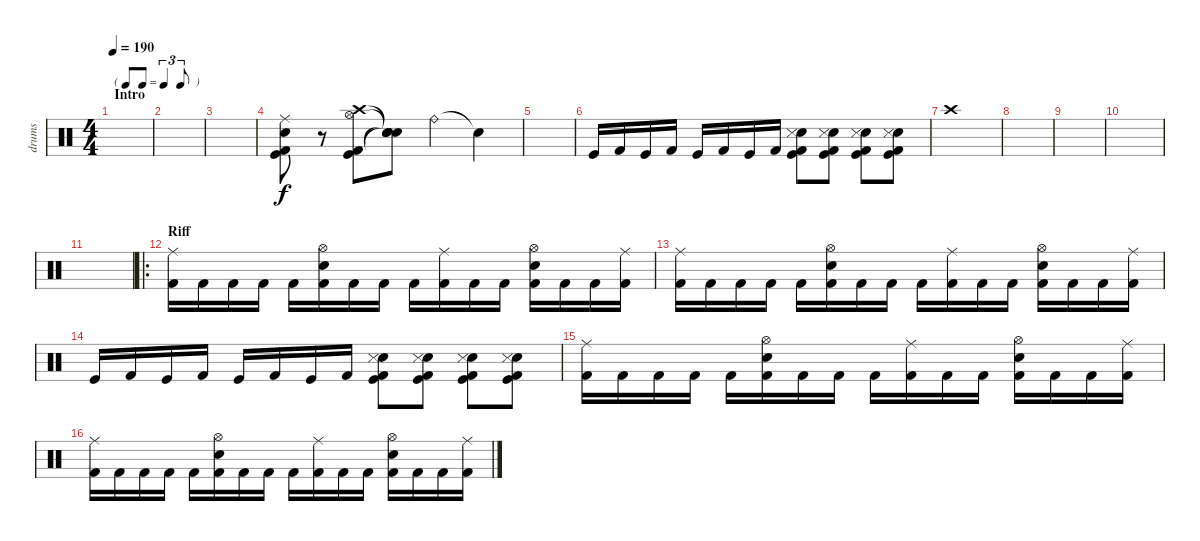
\track ("drums" "drums") {instrument percussion}
\staff {score}
\articulation defaults
\ts (4 4)
\tf triplet8th
\section ("" "Intro")
\tempo 190
\clef neutral
\ks c
|
|
|
("Ride (middle)" "Electric Snare (hit)" "Kick (hit)" "Kick (hit) 2").8 r.8 ("Crash high (hit)" "Hi-Hat (open)" "Kick (hit)" "Kick (hit) 2").8 ("Snare (hit)"{t} "Snare (hit)"{t} "Snare (hit)"{t} "Snare (hit)"{t}).8 "Ride (bell)".4{volume 16} "Snare (hit)"{t}.4 |
|
"Kick (hit)".16 "Kick (hit) 2".16 "Kick (hit)".16 "Kick (hit) 2".16 "Kick (hit)".16 "Kick (hit) 2".16 "Kick (hit)".16 "Kick (hit) 2".16 ("Electric Snare (hit)" "Snare (side stick) 3" "Kick (hit)" "Kick (hit) 2").8 ("Electric Snare (hit)" "Snare (side stick) 3" "Kick (hit)" "Kick (hit) 2").8 ("Electric Snare (hit)" "Snare (side stick) 3" "Kick (hit)" "Kick (hit) 2").8 ("Electric Snare (hit)" "Snare (side stick) 3" "Kick (hit)" "Kick (hit) 2").8 |
"Crash high (hit)".1 |
|
|
|
|
\ro
\section ("" "Riff")
("Kick (hit) 2" "Ride (middle)").16 "Kick (hit) 2".16 "Kick (hit) 2".16 "Kick (hit) 2".16 "Kick (hit) 2".16 ("Kick (hit) 2" "Electric Snare (hit)" "Hi-Hat (open)").16 "Kick (hit) 2".16 "Kick (hit) 2".16 "Kick (hit) 2".16 ("Kick (hit) 2" "Ride (middle)").16 "Kick (hit) 2".16 "Kick (hit) 2".16 ("Kick (hit) 2" "Electric Snare (hit)" "Hi-Hat (open)").16 "Kick (hit) 2".16 "Kick (hit) 2".16 ("Kick (hit) 2" "Ride (middle)").16 |
("Kick (hit) 2" "Ride (middle)").16 "Kick (hit) 2".16 "Kick (hit) 2".16 "Kick (hit) 2".16 "Kick (hit) 2".16 ("Kick (hit) 2" "Electric Snare (hit)" "Hi-Hat (open)").16 "Kick (hit) 2".16 "Kick (hit) 2".16 "Kick (hit) 2".16 ("Kick (hit) 2" "Ride (middle)").16 "Kick (hit) 2".16 "Kick (hit) 2".16 ("Kick (hit) 2" "Electric Snare (hit)" "Hi-Hat (open)").16 "Kick (hit) 2".16 "Kick (hit) 2".16 ("Kick (hit) 2" "Ride (middle)").16 |
"Kick (hit)".16 "Kick (hit) 2".16 "Kick (hit)".16 "Kick (hit) 2".16 "Kick (hit)".16 "Kick (hit) 2".16 "Kick (hit)".16 "Kick (hit) 2".16 ("Electric Snare (hit)" "Snare (side stick) 3" "Kick (hit)" "Kick (hit) 2").8 ("Electric Snare (hit)" "Snare (side stick) 3" "Kick (hit)" "Kick (hit) 2").8 ("Electric Snare (hit)" "Snare (side stick) 3" "Kick (hit)" "Kick (hit) 2").8 ("Electric Snare (hit)" "Snare (side stick) 3" "Kick (hit)" "Kick (hit) 2").8 |
("Kick (hit) 2" "Ride (middle)").16 "Kick (hit) 2".16 "Kick (hit) 2".16 "Kick (hit) 2".16 "Kick (hit) 2".16 ("Kick (hit) 2" "Electric Snare (hit)" "Hi-Hat (open)").16 "Kick (hit) 2".16 "Kick (hit) 2".16 "Kick (hit) 2".16 ("Kick (hit) 2" "Ride (middle)").16 "Kick (hit) 2".16 "Kick (hit) 2".16 ("Kick (hit) 2" "Electric Snare (hit)" "Hi-Hat (open)").16 "Kick (hit) 2".16 "Kick (hit) 2".16 ("Kick (hit) 2" "Ride (middle)").16 |
("Kick (hit) 2" "Ride (middle)").16 "Kick (hit) 2".16 "Kick (hit) 2".16 "Kick (hit) 2".16 "Kick (hit) 2".16 ("Kick (hit) 2" "Electric Snare (hit)" "Hi-Hat (open)").16 "Kick (hit) 2".16 "Kick (hit) 2".16 "Kick (hit) 2".16 ("Kick (hit) 2" "Ride (middle)").16 "Kick (hit) 2".16 "Kick (hit) 2".16 ("Kick (hit) 2" "Electric Snare (hit)" "Hi-Hat (open)").16 "Kick (hit) 2".16 "Kick (hit) 2".16 ("Kick (hit) 2" "Ride (middle)").16
